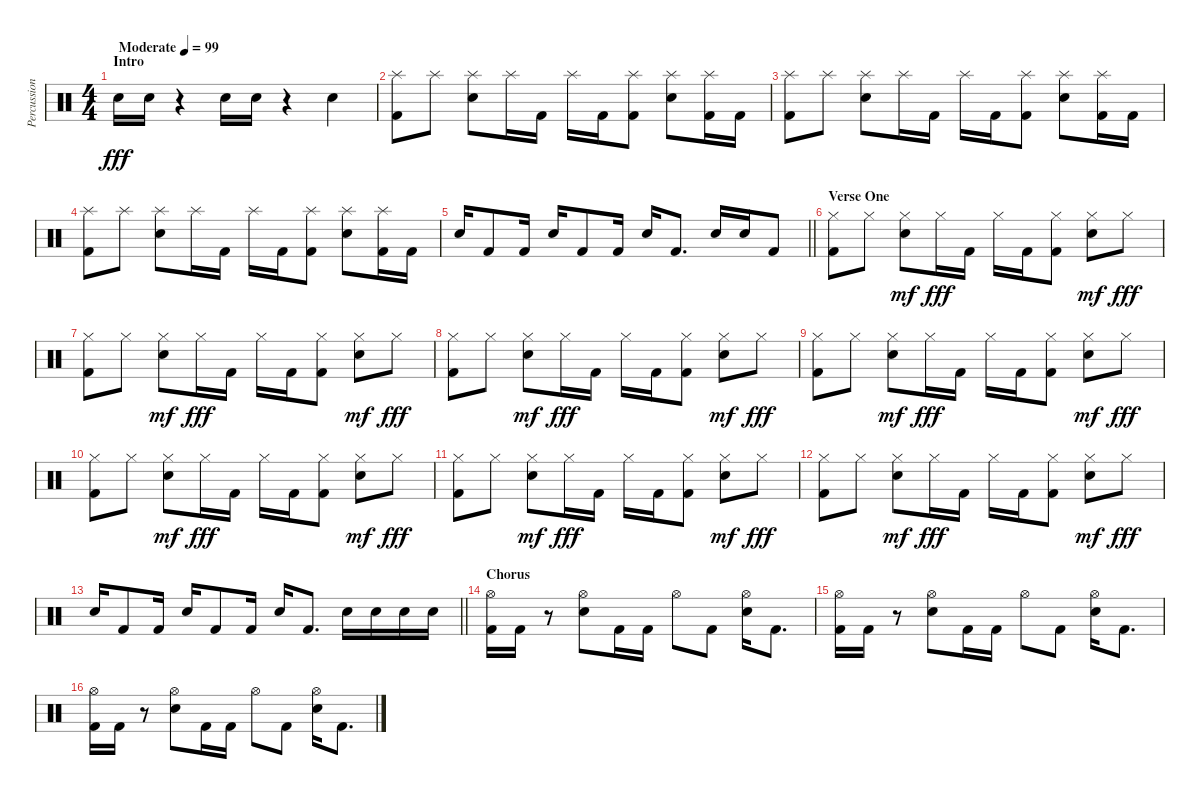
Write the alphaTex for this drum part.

\track ("Percussion" "Percussion") {instrument percussion}
\staff {score}
\articulation defaults
\ts (4 4)
\section ("" "Intro")
\tempo (99 "Moderate")
\clef neutral
\ks c "Snare (hit) 2".16{dy fff} "Snare (hit) 2".16
r.4 "Snare (hit) 2".16 "Snare (hit) 2".16 r.4 "Snare (hit) 2".4 |
("Splash (hit)" "Kick (hit) 2").8 "Splash (hit)".8 ("Splash (hit)" "Snare (hit) 2").8 "Splash (hit)".16 "Kick (hit) 2".16 "Splash (hit)".16 "Kick (hit) 2".16 ("Splash (hit)" "Kick (hit) 2").8 ("Splash (hit)" "Snare (hit) 2").8 ("Splash (hit)" "Kick (hit) 2").16 "Kick (hit) 2".16 |
("Splash (hit)" "Kick (hit) 2").8 "Splash (hit)".8 ("Splash (hit)" "Snare (hit) 2").8 "Splash (hit)".16 "Kick (hit) 2".16 "Splash (hit)".16 "Kick (hit) 2".16 ("Splash (hit)" "Kick (hit) 2").8 ("Splash (hit)" "Snare (hit) 2").8 ("Splash (hit)" "Kick (hit) 2").16 "Kick (hit) 2".16 |
("Splash (hit)" "Kick (hit) 2").8 "Splash (hit)".8 ("Splash (hit)" "Snare (hit) 2").8 "Splash (hit)".16 "Kick (hit) 2".16 "Splash (hit)".16 "Kick (hit) 2".16 ("Splash (hit)" "Kick (hit) 2").8 ("Splash (hit)" "Snare (hit) 2").8 ("Splash (hit)" "Kick (hit) 2").16 "Kick (hit) 2".16 |
\barLineRight lightlight "Snare (hit) 2".16 "Kick (hit) 2".8 "Kick (hit) 2".16 "Snare (hit) 2".16 "Kick (hit) 2".8 "Kick (hit) 2".16 "Snare (hit) 2".16 "Kick (hit) 2".8{d} "Snare (hit) 2".16 "Snare (hit) 2".16 "Kick (hit) 2".8
|
\section ("" "Verse One")
("Hi-Hat (closed)" "Kick (hit) 2").8 "Hi-Hat (closed)".8 ("Hi-Hat (closed)" "Snare (hit) 2").8{dy mf} "Hi-Hat (closed)".16{dy fff} "Kick (hit) 2".16 "Hi-Hat (closed)".16 "Kick (hit) 2".16 ("Hi-Hat (closed)" "Kick (hit) 2").8 ("Hi-Hat (closed)" "Snare (hit) 2").8{dy mf} "Hi-Hat (closed)".8{dy fff} |
("Hi-Hat (closed)" "Kick (hit) 2").8 "Hi-Hat (closed)".8 ("Hi-Hat (closed)" "Snare (hit) 2").8{dy mf} "Hi-Hat (closed)".16{dy fff} "Kick (hit) 2".16 "Hi-Hat (closed)".16 "Kick (hit) 2".16 ("Hi-Hat (closed)" "Kick (hit) 2").8 ("Hi-Hat (closed)" "Snare (hit) 2").8{dy mf} "Hi-Hat (closed)".8{dy fff} |
("Hi-Hat (closed)" "Kick (hit) 2").8 "Hi-Hat (closed)".8 ("Hi-Hat (closed)" "Snare (hit) 2").8{dy mf} "Hi-Hat (closed)".16{dy fff} "Kick (hit) 2".16 "Hi-Hat (closed)".16 "Kick (hit) 2".16 ("Hi-Hat (closed)" "Kick (hit) 2").8 ("Hi-Hat (closed)" "Snare (hit) 2").8{dy mf} "Hi-Hat (closed)".8{dy fff} |
("Hi-Hat (closed)" "Kick (hit) 2").8 "Hi-Hat (closed)".8 ("Hi-Hat (closed)" "Snare (hit) 2").8{dy mf} "Hi-Hat (closed)".16{dy fff} "Kick (hit) 2".16 "Hi-Hat (closed)".16 "Kick (hit) 2".16 ("Hi-Hat (closed)" "Kick (hit) 2").8 ("Hi-Hat (closed)" "Snare (hit) 2").8{dy mf} "Hi-Hat (closed)".8{dy fff} |
("Hi-Hat (closed)" "Kick (hit) 2").8 "Hi-Hat (closed)".8 ("Hi-Hat (closed)" "Snare (hit) 2").8{dy mf} "Hi-Hat (closed)".16{dy fff} "Kick (hit) 2".16 "Hi-Hat (closed)".16 "Kick (hit) 2".16 ("Hi-Hat (closed)" "Kick (hit) 2").8 ("Hi-Hat (closed)" "Snare (hit) 2").8{dy mf} "Hi-Hat (closed)".8{dy fff} |
("Hi-Hat (closed)" "Kick (hit) 2").8 "Hi-Hat (closed)".8 ("Hi-Hat (closed)" "Snare (hit) 2").8{dy mf} "Hi-Hat (closed)".16{dy fff} "Kick (hit) 2".16 "Hi-Hat (closed)".16 "Kick (hit) 2".16 ("Hi-Hat (closed)" "Kick (hit) 2").8 ("Hi-Hat (closed)" "Snare (hit) 2").8{dy mf} "Hi-Hat (closed)".8{dy fff} |
("Hi-Hat (closed)" "Kick (hit) 2").8 "Hi-Hat (closed)".8 ("Hi-Hat (closed)" "Snare (hit) 2").8{dy mf} "Hi-Hat (closed)".16{dy fff} "Kick (hit) 2".16 "Hi-Hat (closed)".16 "Kick (hit) 2".16 ("Hi-Hat (closed)" "Kick (hit) 2").8 ("Hi-Hat (closed)" "Snare (hit) 2").8{dy mf} "Hi-Hat (closed)".8{dy fff} |
\barLineRight lightlight "Snare (hit) 2".16 "Kick (hit) 2".8 "Kick (hit) 2".16 "Snare (hit) 2".16 "Kick (hit) 2".8 "Kick (hit) 2".16 "Snare (hit) 2".16 "Kick (hit) 2".8{d} "Snare (hit) 2".16 "Snare (hit) 2".16 "Snare (hit) 2".16 "Snare (hit) 2".16
|
\section ("" "Chorus")
("Kick (hit) 2" "Hi-Hat (open)").16 "Kick (hit) 2".16 r.8 ("Snare (hit) 2" "Hi-Hat (open)").8 "Kick (hit) 2".16 "Kick (hit) 2".16 "Hi-Hat (open)".8 "Kick (hit) 2".8 ("Snare (hit) 2" "Hi-Hat (open)").16 "Kick (hit) 2".8{d} |
("Kick (hit) 2" "Hi-Hat (open)").16 "Kick (hit) 2".16 r.8 ("Snare (hit) 2" "Hi-Hat (open)").8 "Kick (hit) 2".16 "Kick (hit) 2".16 "Hi-Hat (open)".8 "Kick (hit) 2".8 ("Snare (hit) 2" "Hi-Hat (open)").16 "Kick (hit) 2".8{d} |
("Kick (hit) 2" "Hi-Hat (open)").16 "Kick (hit) 2".16 r.8 ("Snare (hit) 2" "Hi-Hat (open)").8 "Kick (hit) 2".16 "Kick (hit) 2".16 "Hi-Hat (open)".8 "Kick (hit) 2".8 ("Snare (hit) 2" "Hi-Hat (open)").16 "Kick (hit) 2".8{d}
